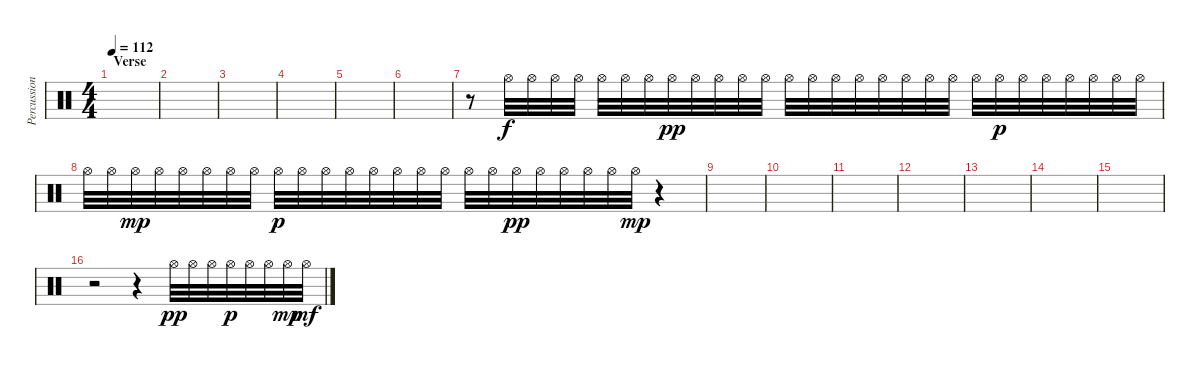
\track ("Percussion" "Percussion") {instrument percussion}
\staff {score}
\articulation defaults
\ts (4 4)
\section ("" "Verse")
\tempo 112
\clef neutral
\ks c
|
|
|
|
|
|
r.8 "Hi-Hat (open)".32 "Hi-Hat (open)".32 "Hi-Hat (open)".32 "Hi-Hat (open)".32 "Hi-Hat (open)".32 "Hi-Hat (open)".32 "Hi-Hat (open)".32 "Hi-Hat (open)".32{dy pp} "Hi-Hat (open)".32 "Hi-Hat (open)".32 "Hi-Hat (open)".32 "Hi-Hat (open)".32 "Hi-Hat (open)".32 "Hi-Hat (open)".32 "Hi-Hat (open)".32 "Hi-Hat (open)".32 "Hi-Hat (open)".32 "Hi-Hat (open)".32 "Hi-Hat (open)".32 "Hi-Hat (open)".32 "Hi-Hat (open)".32 "Hi-Hat (open)".32{dy p} "Hi-Hat (open)".32 "Hi-Hat (open)".32 "Hi-Hat (open)".32 "Hi-Hat (open)".32 "Hi-Hat (open)".32 "Hi-Hat (open)".32 |
"Hi-Hat (open)".32 "Hi-Hat (open)".32 "Hi-Hat (open)".32{dy mp} "Hi-Hat (open)".32 "Hi-Hat (open)".32 "Hi-Hat (open)".32 "Hi-Hat (open)".32 "Hi-Hat (open)".32 "Hi-Hat (open)".32{dy p} "Hi-Hat (open)".32 "Hi-Hat (open)".32 "Hi-Hat (open)".32 "Hi-Hat (open)".32 "Hi-Hat (open)".32 "Hi-Hat (open)".32 "Hi-Hat (open)".32 "Hi-Hat (open)".32 "Hi-Hat (open)".32 "Hi-Hat (open)".32{dy pp} "Hi-Hat (open)".32 "Hi-Hat (open)".32 "Hi-Hat (open)".32 "Hi-Hat (open)".32 "Hi-Hat (open)".32{dy mp} r.4 |
|
|
|
|
|
|
|
r.2 r.4 "Hi-Hat (open)".32{dy pp} "Hi-Hat (open)".32 "Hi-Hat (open)".32 "Hi-Hat (open)".32{dy p} "Hi-Hat (open)".32 "Hi-Hat (open)".32 "Hi-Hat (open)".32{dy mp} "Hi-Hat (open)".32{dy mf}
